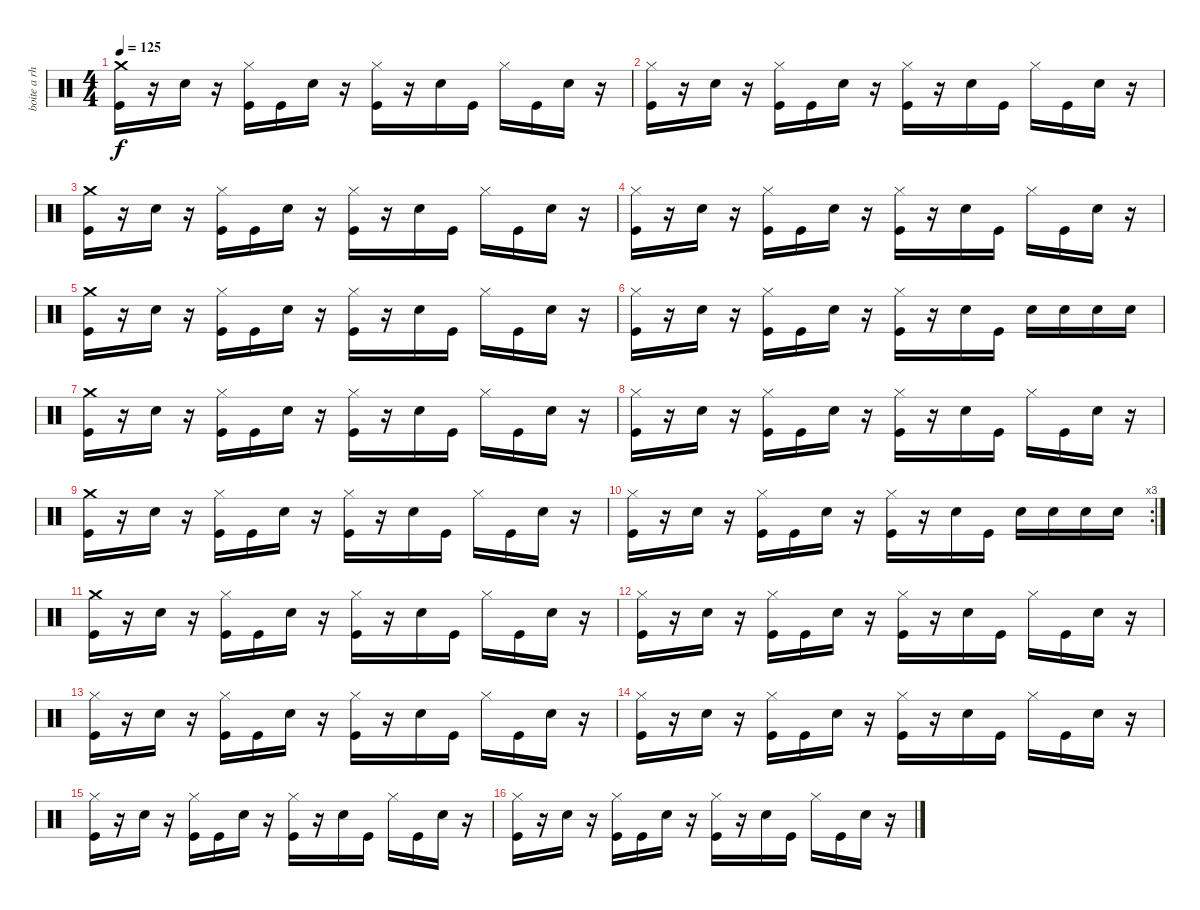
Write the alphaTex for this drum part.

\track ("boite a rhytme ( jean-Francois )" "boite a rh") {instrument percussion}
\staff {score}
\articulation defaults
\ts (4 4)
\tempo 125
\clef neutral
\ks c
("Crash medium (hit)" "Kick (hit)").16{dy f} r.16 "Snare (hit) 2".16 r.16 ("Hi-Hat (closed)" "Kick (hit)").16 "Kick (hit)".16 "Snare (hit) 2".16 r.16 ("Hi-Hat (closed)" "Kick (hit)").16 r.16 "Snare (hit) 2".16 "Kick (hit)".16 "Hi-Hat (closed)".16 "Kick (hit)".16 "Snare (hit) 2".16 r.16 |
("Hi-Hat (closed)" "Kick (hit)").16 r.16 "Snare (hit) 2".16 r.16 ("Hi-Hat (closed)" "Kick (hit)").16 "Kick (hit)".16 "Snare (hit) 2".16 r.16 ("Hi-Hat (closed)" "Kick (hit)").16 r.16 "Snare (hit) 2".16 "Kick (hit)".16 "Hi-Hat (closed)".16 "Kick (hit)".16 "Snare (hit) 2".16 r.16 |
("Crash medium (hit)" "Kick (hit)").16 r.16 "Snare (hit) 2".16 r.16 ("Hi-Hat (closed)" "Kick (hit)").16 "Kick (hit)".16 "Snare (hit) 2".16 r.16 ("Hi-Hat (closed)" "Kick (hit)").16 r.16 "Snare (hit) 2".16 "Kick (hit)".16 "Hi-Hat (closed)".16 "Kick (hit)".16 "Snare (hit) 2".16 r.16 |
("Hi-Hat (closed)" "Kick (hit)").16 r.16 "Snare (hit) 2".16 r.16 ("Hi-Hat (closed)" "Kick (hit)").16 "Kick (hit)".16 "Snare (hit) 2".16 r.16 ("Hi-Hat (closed)" "Kick (hit)").16 r.16 "Snare (hit) 2".16 "Kick (hit)".16 "Hi-Hat (closed)".16 "Kick (hit)".16 "Snare (hit) 2".16 r.16 |
("Crash medium (hit)" "Kick (hit)").16 r.16 "Snare (hit) 2".16 r.16 ("Hi-Hat (closed)" "Kick (hit)").16 "Kick (hit)".16 "Snare (hit) 2".16 r.16 ("Hi-Hat (closed)" "Kick (hit)").16 r.16 "Snare (hit) 2".16 "Kick (hit)".16 "Hi-Hat (closed)".16 "Kick (hit)".16 "Snare (hit) 2".16 r.16 |
("Hi-Hat (closed)" "Kick (hit)").16 r.16 "Snare (hit) 2".16 r.16 ("Hi-Hat (closed)" "Kick (hit)").16 "Kick (hit)".16 "Snare (hit) 2".16 r.16 ("Hi-Hat (closed)" "Kick (hit)").16 r.16 "Snare (hit) 2".16 "Kick (hit)".16 "Snare (hit) 2".16 "Snare (hit) 2".16 "Snare (hit) 2".16 "Snare (hit) 2".16 |
("Crash medium (hit)" "Kick (hit)").16 r.16 "Snare (hit) 2".16 r.16 ("Hi-Hat (closed)" "Kick (hit)").16 "Kick (hit)".16 "Snare (hit) 2".16 r.16 ("Hi-Hat (closed)" "Kick (hit)").16 r.16 "Snare (hit) 2".16 "Kick (hit)".16 "Hi-Hat (closed)".16 "Kick (hit)".16 "Snare (hit) 2".16 r.16 |
("Hi-Hat (closed)" "Kick (hit)").16 r.16 "Snare (hit) 2".16 r.16 ("Hi-Hat (closed)" "Kick (hit)").16 "Kick (hit)".16 "Snare (hit) 2".16 r.16 ("Hi-Hat (closed)" "Kick (hit)").16 r.16 "Snare (hit) 2".16 "Kick (hit)".16 "Hi-Hat (closed)".16 "Kick (hit)".16 "Snare (hit) 2".16 r.16 |
("Crash medium (hit)" "Kick (hit)").16 r.16 "Snare (hit) 2".16 r.16 ("Hi-Hat (closed)" "Kick (hit)").16 "Kick (hit)".16 "Snare (hit) 2".16 r.16 ("Hi-Hat (closed)" "Kick (hit)").16 r.16 "Snare (hit) 2".16 "Kick (hit)".16 "Hi-Hat (closed)".16 "Kick (hit)".16 "Snare (hit) 2".16 r.16 |
\rc 3
("Hi-Hat (closed)" "Kick (hit)").16 r.16 "Snare (hit) 2".16 r.16 ("Hi-Hat (closed)" "Kick (hit)").16 "Kick (hit)".16 "Snare (hit) 2".16 r.16 ("Hi-Hat (closed)" "Kick (hit)").16 r.16 "Snare (hit) 2".16 "Kick (hit)".16 "Snare (hit) 2".16 "Snare (hit) 2".16 "Snare (hit) 2".16 "Snare (hit) 2".16 |
("Crash medium (hit)" "Kick (hit)").16 r.16 "Snare (hit) 2".16 r.16 ("Hi-Hat (closed)" "Kick (hit)").16 "Kick (hit)".16 "Snare (hit) 2".16 r.16 ("Hi-Hat (closed)" "Kick (hit)").16 r.16 "Snare (hit) 2".16 "Kick (hit)".16 "Hi-Hat (closed)".16 "Kick (hit)".16 "Snare (hit) 2".16 r.16 |
("Hi-Hat (closed)" "Kick (hit)").16 r.16 "Snare (hit) 2".16 r.16 ("Hi-Hat (closed)" "Kick (hit)").16 "Kick (hit)".16 "Snare (hit) 2".16 r.16 ("Hi-Hat (closed)" "Kick (hit)").16 r.16 "Snare (hit) 2".16 "Kick (hit)".16 "Hi-Hat (closed)".16 "Kick (hit)".16 "Snare (hit) 2".16 r.16 |
("Hi-Hat (closed)" "Kick (hit)").16 r.16 "Snare (hit) 2".16 r.16 ("Hi-Hat (closed)" "Kick (hit)").16 "Kick (hit)".16 "Snare (hit) 2".16 r.16 ("Hi-Hat (closed)" "Kick (hit)").16 r.16 "Snare (hit) 2".16 "Kick (hit)".16 "Hi-Hat (closed)".16 "Kick (hit)".16 "Snare (hit) 2".16 r.16 |
("Hi-Hat (closed)" "Kick (hit)").16 r.16 "Snare (hit) 2".16 r.16 ("Hi-Hat (closed)" "Kick (hit)").16 "Kick (hit)".16 "Snare (hit) 2".16 r.16 ("Hi-Hat (closed)" "Kick (hit)").16 r.16 "Snare (hit) 2".16 "Kick (hit)".16 "Hi-Hat (closed)".16 "Kick (hit)".16 "Snare (hit) 2".16 r.16 |
("Hi-Hat (closed)" "Kick (hit)").16 r.16 "Snare (hit) 2".16 r.16 ("Hi-Hat (closed)" "Kick (hit)").16 "Kick (hit)".16 "Snare (hit) 2".16 r.16 ("Hi-Hat (closed)" "Kick (hit)").16 r.16 "Snare (hit) 2".16 "Kick (hit)".16 "Hi-Hat (closed)".16 "Kick (hit)".16 "Snare (hit) 2".16 r.16 |
("Hi-Hat (closed)" "Kick (hit)").16 r.16 "Snare (hit) 2".16 r.16 ("Hi-Hat (closed)" "Kick (hit)").16 "Kick (hit)".16 "Snare (hit) 2".16 r.16 ("Hi-Hat (closed)" "Kick (hit)").16 r.16 "Snare (hit) 2".16 "Kick (hit)".16 "Hi-Hat (closed)".16 "Kick (hit)".16 "Snare (hit) 2".16 r.16
